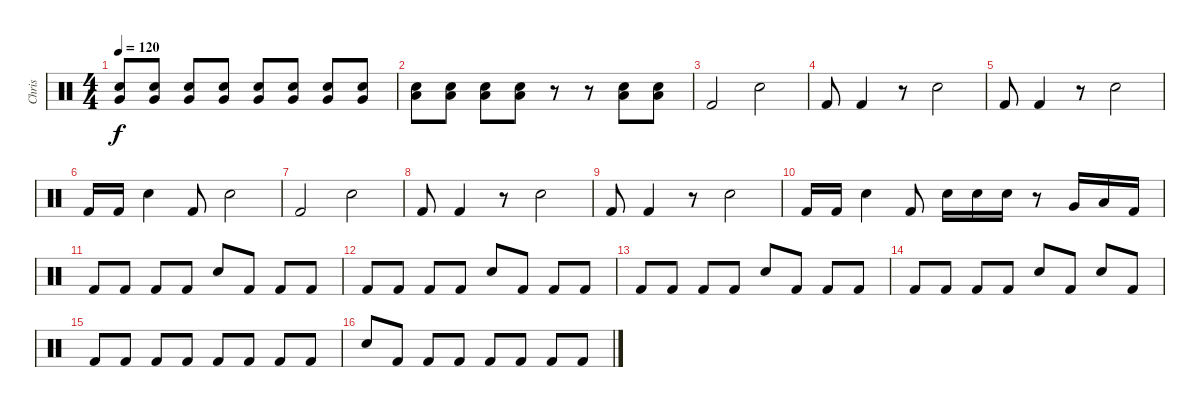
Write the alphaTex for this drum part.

\track ("Chris" "Chris") {instrument percussion}
\staff {score}
\articulation defaults
\ts (4 4)
\tempo 120
\clef neutral
\ks c
("Snare (hit) 2" "Very Low Tom (hit)").8{dy f} ("Snare (hit) 2" "Very Low Tom (hit)").8 ("Snare (hit) 2" "Very Low Tom (hit)").8 ("Snare (hit) 2" "Very Low Tom (hit)").8 ("Snare (hit) 2" "Very Low Tom (hit)").8 ("Snare (hit) 2" "Very Low Tom (hit)").8 ("Snare (hit) 2" "Very Low Tom (hit)").8 ("Snare (hit) 2" "Very Low Tom (hit)").8 |
("Snare (hit) 2" "Low Floor Tom (hit)").8 ("Snare (hit) 2" "Low Floor Tom (hit)").8 ("Snare (hit) 2" "Low Floor Tom (hit)").8 ("Snare (hit) 2" "Low Floor Tom (hit)").8 r.8 r.8 ("Snare (hit) 2" "Low Floor Tom (hit)").8 ("Snare (hit) 2" "Low Floor Tom (hit)").8 |
"Kick (hit) 2".2 "Snare (hit) 2".2 |
"Kick (hit) 2".8 "Kick (hit) 2".4 r.8 "Snare (hit) 2".2 |
"Kick (hit) 2".8 "Kick (hit) 2".4 r.8 "Snare (hit) 2".2 |
"Kick (hit) 2".16 "Kick (hit) 2".16 "Snare (hit) 2".4 "Kick (hit) 2".8 "Snare (hit) 2".2 |
"Kick (hit) 2".2 "Snare (hit) 2".2 |
"Kick (hit) 2".8 "Kick (hit) 2".4 r.8 "Snare (hit) 2".2 |
"Kick (hit) 2".8 "Kick (hit) 2".4 r.8 "Snare (hit) 2".2 |
"Kick (hit) 2".16 "Kick (hit) 2".16 "Snare (hit) 2".4 "Kick (hit) 2".8 "Snare (hit) 2".16 "Snare (hit) 2".16 "Snare (hit) 2".16 r.8 "Very Low Tom (hit)".16 "Low Floor Tom (hit)".16 "Kick (hit) 2".16 |
"Kick (hit) 2".8 "Kick (hit) 2".8 "Kick (hit) 2".8 "Kick (hit) 2".8 "Snare (hit) 2".8 "Kick (hit) 2".8 "Kick (hit) 2".8 "Kick (hit) 2".8 |
"Kick (hit) 2".8 "Kick (hit) 2".8 "Kick (hit) 2".8 "Kick (hit) 2".8 "Snare (hit) 2".8 "Kick (hit) 2".8 "Kick (hit) 2".8 "Kick (hit) 2".8 |
"Kick (hit) 2".8 "Kick (hit) 2".8 "Kick (hit) 2".8 "Kick (hit) 2".8 "Snare (hit) 2".8 "Kick (hit) 2".8 "Kick (hit) 2".8 "Kick (hit) 2".8 |
"Kick (hit) 2".8 "Kick (hit) 2".8 "Kick (hit) 2".8 "Kick (hit) 2".8 "Snare (hit) 2".8 "Kick (hit) 2".8 "Snare (hit) 2".8 "Kick (hit) 2".8 |
"Kick (hit) 2".8 "Kick (hit) 2".8 "Kick (hit) 2".8 "Kick (hit) 2".8 "Kick (hit) 2".8 "Kick (hit) 2".8 "Kick (hit) 2".8 "Kick (hit) 2".8 |
"Snare (hit) 2".8 "Kick (hit) 2".8 "Kick (hit) 2".8 "Kick (hit) 2".8 "Kick (hit) 2".8 "Kick (hit) 2".8 "Kick (hit) 2".8 "Kick (hit) 2".8
